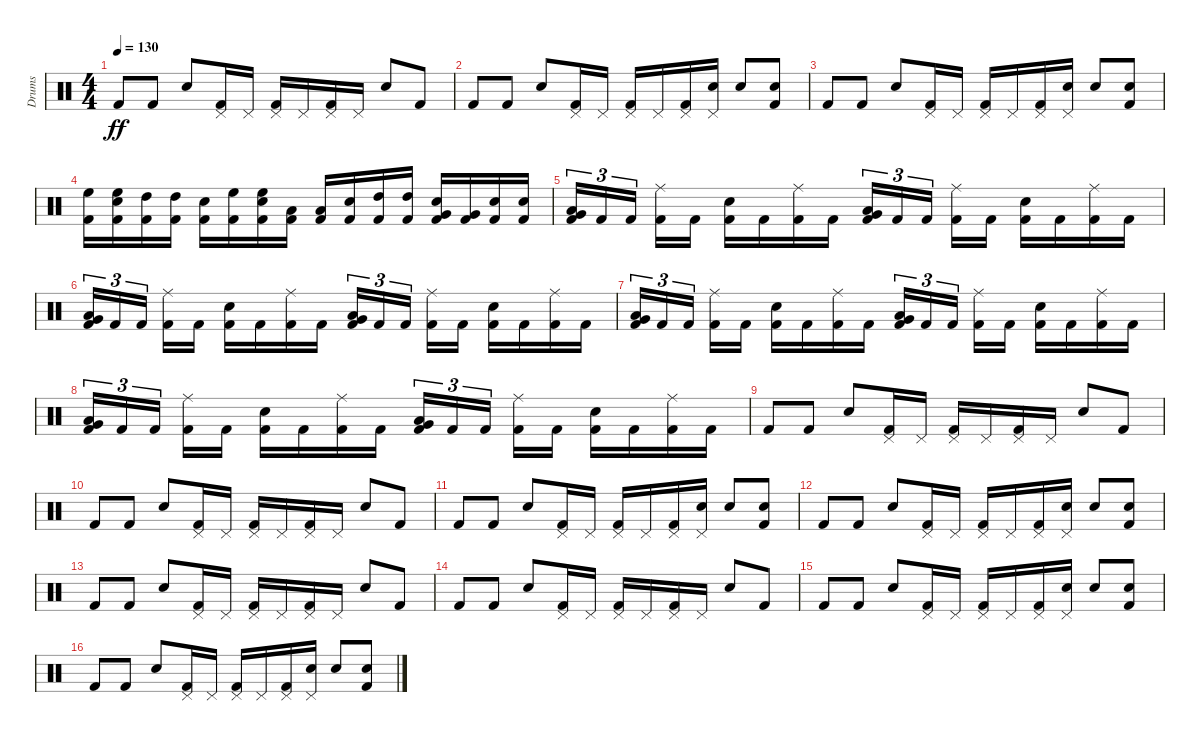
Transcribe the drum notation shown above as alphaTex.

\track ("Drums" "Drums") {instrument percussion}
\staff {score}
\articulation defaults
\ts (4 4)
\tempo 130
\clef neutral
\ks c "Kick (hit) 2".8{dy ff} "Kick (hit) 2".8 "Snare (hit) 2".8
("Pedal Hi-Hat (hit)" "Kick (hit) 2").16 "Pedal Hi-Hat (hit)".16 ("Pedal Hi-Hat (hit)" "Kick (hit) 2").16 "Pedal Hi-Hat (hit)".16 ("Pedal Hi-Hat (hit)" "Kick (hit) 2").16 "Pedal Hi-Hat (hit)".16 "Snare (hit) 2".8 "Kick (hit) 2".8 |
"Kick (hit) 2".8 "Kick (hit) 2".8 "Snare (hit) 2".8 ("Pedal Hi-Hat (hit)" "Kick (hit) 2").16 "Pedal Hi-Hat (hit)".16 ("Pedal Hi-Hat (hit)" "Kick (hit) 2").16 "Pedal Hi-Hat (hit)".16 ("Pedal Hi-Hat (hit)" "Kick (hit) 2").16 ("Pedal Hi-Hat (hit)" "Snare (hit) 2").16 "Snare (hit) 2".8 ("Snare (hit) 2" "Kick (hit) 2").8 |
"Kick (hit) 2".8 "Kick (hit) 2".8 "Snare (hit) 2".8 ("Pedal Hi-Hat (hit)" "Kick (hit) 2").16 "Pedal Hi-Hat (hit)".16 ("Pedal Hi-Hat (hit)" "Kick (hit) 2").16 "Pedal Hi-Hat (hit)".16 ("Pedal Hi-Hat (hit)" "Kick (hit) 2").16 ("Pedal Hi-Hat (hit)" "Snare (hit) 2").16 "Snare (hit) 2".8 ("Snare (hit) 2" "Kick (hit) 2").8 |
("High Floor Tom (hit)" "Kick (hit) 2").16 ("High Floor Tom (hit)" "Snare (hit) 2" "Kick (hit) 2").16 ("High Tom (hit)" "Kick (hit) 2").16 ("High Tom (hit)" "Kick (hit) 2").16 ("Snare (hit) 2" "Kick (hit) 2").16 ("High Floor Tom (hit)" "Kick (hit) 2").16 ("High Floor Tom (hit)" "Snare (hit) 2" "Kick (hit) 2").16 ("Low Tom (hit)" "Kick (hit) 2").16 ("Low Tom (hit)" "Kick (hit) 2").16 ("Snare (hit) 2" "Kick (hit) 2").16 ("High Tom (hit)" "Kick (hit) 2").16 ("High Tom (hit)" "Kick (hit) 2").16 ("Very Low Tom (hit)" "Snare (hit) 2" "Kick (hit) 2").16 ("Very Low Tom (hit)" "Kick (hit) 2").16 ("Snare (hit) 2" "Kick (hit) 2").16 ("Snare (hit) 2" "Kick (hit) 2").16 |
("Low Tom (hit)" "Very Low Tom (hit)" "Kick (hit) 2").16{tu (3 2)} "Kick (hit) 2".16{tu (3 2)} "Kick (hit) 2".16{tu (3 2) beam splitsecondary} ("Ride (middle)" "Kick (hit) 2").16 "Kick (hit) 2".16 ("Snare (hit) 2" "Kick (hit) 2").16 "Kick (hit) 2".16 ("Ride (middle)" "Kick (hit) 2").16 "Kick (hit) 2".16 ("Low Tom (hit)" "Very Low Tom (hit)" "Kick (hit) 2").16{tu (3 2)} "Kick (hit) 2".16{tu (3 2)} "Kick (hit) 2".16{tu (3 2) beam splitsecondary} ("Ride (middle)" "Kick (hit) 2").16 "Kick (hit) 2".16 ("Snare (hit) 2" "Kick (hit) 2").16 "Kick (hit) 2".16 ("Ride (middle)" "Kick (hit) 2").16 "Kick (hit) 2".16 |
("Low Tom (hit)" "Very Low Tom (hit)" "Kick (hit) 2").16{tu (3 2)} "Kick (hit) 2".16{tu (3 2)} "Kick (hit) 2".16{tu (3 2) beam splitsecondary} ("Ride (middle)" "Kick (hit) 2").16 "Kick (hit) 2".16 ("Snare (hit) 2" "Kick (hit) 2").16 "Kick (hit) 2".16 ("Ride (middle)" "Kick (hit) 2").16 "Kick (hit) 2".16 ("Low Tom (hit)" "Very Low Tom (hit)" "Kick (hit) 2").16{tu (3 2)} "Kick (hit) 2".16{tu (3 2)} "Kick (hit) 2".16{tu (3 2) beam splitsecondary} ("Ride (middle)" "Kick (hit) 2").16 "Kick (hit) 2".16 ("Snare (hit) 2" "Kick (hit) 2").16 "Kick (hit) 2".16 ("Ride (middle)" "Kick (hit) 2").16 "Kick (hit) 2".16 |
("Low Tom (hit)" "Very Low Tom (hit)" "Kick (hit) 2").16{tu (3 2)} "Kick (hit) 2".16{tu (3 2)} "Kick (hit) 2".16{tu (3 2) beam splitsecondary} ("Ride (middle)" "Kick (hit) 2").16 "Kick (hit) 2".16 ("Snare (hit) 2" "Kick (hit) 2").16 "Kick (hit) 2".16 ("Ride (middle)" "Kick (hit) 2").16 "Kick (hit) 2".16 ("Low Tom (hit)" "Very Low Tom (hit)" "Kick (hit) 2").16{tu (3 2)} "Kick (hit) 2".16{tu (3 2)} "Kick (hit) 2".16{tu (3 2) beam splitsecondary} ("Ride (middle)" "Kick (hit) 2").16 "Kick (hit) 2".16 ("Snare (hit) 2" "Kick (hit) 2").16 "Kick (hit) 2".16 ("Ride (middle)" "Kick (hit) 2").16 "Kick (hit) 2".16 |
("Low Tom (hit)" "Very Low Tom (hit)" "Kick (hit) 2").16{tu (3 2)} "Kick (hit) 2".16{tu (3 2)} "Kick (hit) 2".16{tu (3 2) beam splitsecondary} ("Ride (middle)" "Kick (hit) 2").16 "Kick (hit) 2".16 ("Snare (hit) 2" "Kick (hit) 2").16 "Kick (hit) 2".16 ("Ride (middle)" "Kick (hit) 2").16 "Kick (hit) 2".16 ("Low Tom (hit)" "Very Low Tom (hit)" "Kick (hit) 2").16{tu (3 2)} "Kick (hit) 2".16{tu (3 2)} "Kick (hit) 2".16{tu (3 2) beam splitsecondary} ("Ride (middle)" "Kick (hit) 2").16 "Kick (hit) 2".16 ("Snare (hit) 2" "Kick (hit) 2").16 "Kick (hit) 2".16 ("Ride (middle)" "Kick (hit) 2").16 "Kick (hit) 2".16 |
"Kick (hit) 2".8 "Kick (hit) 2".8 "Snare (hit) 2".8 ("Pedal Hi-Hat (hit)" "Kick (hit) 2").16 "Pedal Hi-Hat (hit)".16 ("Pedal Hi-Hat (hit)" "Kick (hit) 2").16 "Pedal Hi-Hat (hit)".16 ("Pedal Hi-Hat (hit)" "Kick (hit) 2").16 "Pedal Hi-Hat (hit)".16 "Snare (hit) 2".8 "Kick (hit) 2".8 |
"Kick (hit) 2".8 "Kick (hit) 2".8 "Snare (hit) 2".8 ("Pedal Hi-Hat (hit)" "Kick (hit) 2").16 "Pedal Hi-Hat (hit)".16 ("Pedal Hi-Hat (hit)" "Kick (hit) 2").16 "Pedal Hi-Hat (hit)".16 ("Pedal Hi-Hat (hit)" "Kick (hit) 2").16 "Pedal Hi-Hat (hit)".16 "Snare (hit) 2".8 "Kick (hit) 2".8 |
"Kick (hit) 2".8 "Kick (hit) 2".8 "Snare (hit) 2".8 ("Pedal Hi-Hat (hit)" "Kick (hit) 2").16 "Pedal Hi-Hat (hit)".16 ("Pedal Hi-Hat (hit)" "Kick (hit) 2").16 "Pedal Hi-Hat (hit)".16 ("Pedal Hi-Hat (hit)" "Kick (hit) 2").16 ("Pedal Hi-Hat (hit)" "Snare (hit) 2").16 "Snare (hit) 2".8 ("Snare (hit) 2" "Kick (hit) 2").8 |
"Kick (hit) 2".8 "Kick (hit) 2".8 "Snare (hit) 2".8 ("Pedal Hi-Hat (hit)" "Kick (hit) 2").16 "Pedal Hi-Hat (hit)".16 ("Pedal Hi-Hat (hit)" "Kick (hit) 2").16 "Pedal Hi-Hat (hit)".16 ("Pedal Hi-Hat (hit)" "Kick (hit) 2").16 ("Pedal Hi-Hat (hit)" "Snare (hit) 2").16 "Snare (hit) 2".8 ("Snare (hit) 2" "Kick (hit) 2").8 |
"Kick (hit) 2".8 "Kick (hit) 2".8 "Snare (hit) 2".8 ("Pedal Hi-Hat (hit)" "Kick (hit) 2").16 "Pedal Hi-Hat (hit)".16 ("Pedal Hi-Hat (hit)" "Kick (hit) 2").16 "Pedal Hi-Hat (hit)".16 ("Pedal Hi-Hat (hit)" "Kick (hit) 2").16 "Pedal Hi-Hat (hit)".16 "Snare (hit) 2".8 "Kick (hit) 2".8 |
"Kick (hit) 2".8 "Kick (hit) 2".8 "Snare (hit) 2".8 ("Pedal Hi-Hat (hit)" "Kick (hit) 2").16 "Pedal Hi-Hat (hit)".16 ("Pedal Hi-Hat (hit)" "Kick (hit) 2").16 "Pedal Hi-Hat (hit)".16 ("Pedal Hi-Hat (hit)" "Kick (hit) 2").16 "Pedal Hi-Hat (hit)".16 "Snare (hit) 2".8 "Kick (hit) 2".8 |
"Kick (hit) 2".8 "Kick (hit) 2".8 "Snare (hit) 2".8 ("Pedal Hi-Hat (hit)" "Kick (hit) 2").16 "Pedal Hi-Hat (hit)".16 ("Pedal Hi-Hat (hit)" "Kick (hit) 2").16 "Pedal Hi-Hat (hit)".16 ("Pedal Hi-Hat (hit)" "Kick (hit) 2").16 ("Pedal Hi-Hat (hit)" "Snare (hit) 2").16 "Snare (hit) 2".8 ("Snare (hit) 2" "Kick (hit) 2").8 |
"Kick (hit) 2".8 "Kick (hit) 2".8 "Snare (hit) 2".8 ("Pedal Hi-Hat (hit)" "Kick (hit) 2").16 "Pedal Hi-Hat (hit)".16 ("Pedal Hi-Hat (hit)" "Kick (hit) 2").16 "Pedal Hi-Hat (hit)".16 ("Pedal Hi-Hat (hit)" "Kick (hit) 2").16 ("Pedal Hi-Hat (hit)" "Snare (hit) 2").16 "Snare (hit) 2".8 ("Snare (hit) 2" "Kick (hit) 2").8
